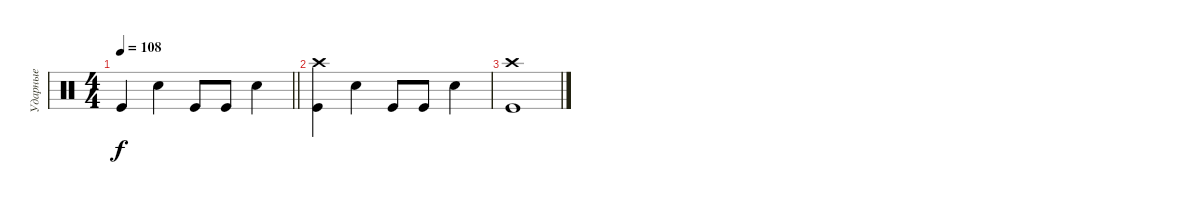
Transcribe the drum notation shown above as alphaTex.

\track ("Ударные" "Ударные") {instrument percussion}
\staff {score}
\articulation defaults
\ts (4 4)
\tempo 108
\clef neutral
\barLineRight lightlight
\ks c "Kick (hit)".4{dy f} "Snare (hit) 2".4 "Kick (hit)".8 "Kick (hit)".8 "Snare (hit) 2".4
|
("Kick (hit)" "Crash high (hit)").4 "Snare (hit) 2".4 "Kick (hit)".8 "Kick (hit)".8 "Snare (hit) 2".4 |
("Kick (hit)" "Crash high (hit)").1
